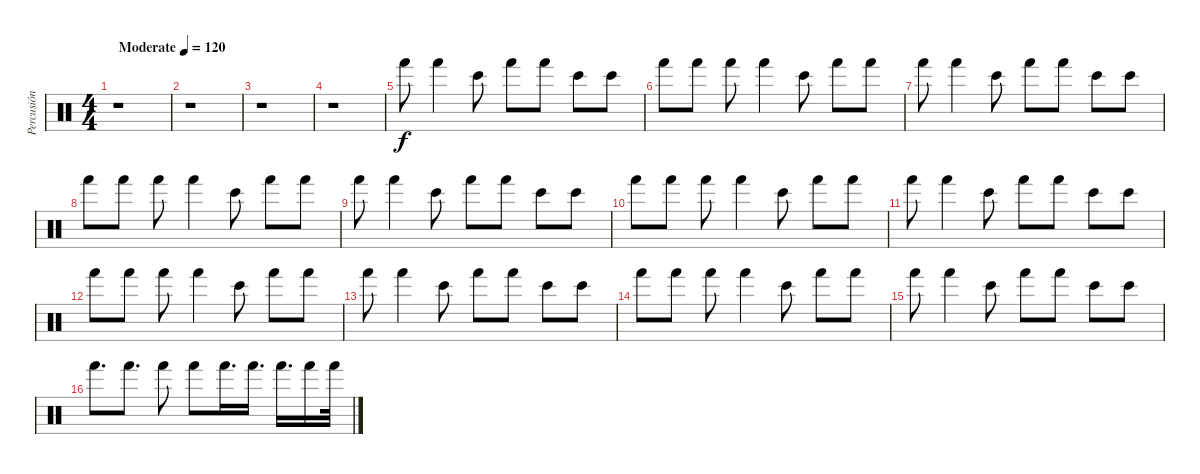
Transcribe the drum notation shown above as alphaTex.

\track ("Percusión" "Percusión") {instrument percussion}
\staff
\articulation defaults
\ts (4 4)
\tempo (120 "Moderate")
\clef neutral
\ks c
r.1{dy f} |
r.1 |
r.1 |
r.1 |
"Hand (hit)".8 "Hand (hit)".4 "Bongo High (hit)".8 "Hand (hit)".8 "Hand (hit)".8 "Bongo High (hit)".8 "Bongo High (hit)".8 |
"Hand (hit)".8 "Hand (hit)".8 "Hand (hit)".8 "Hand (hit)".4 "Bongo High (hit)".8 "Hand (hit)".8 "Hand (hit)".8 |
"Hand (hit)".8 "Hand (hit)".4 "Bongo High (hit)".8 "Hand (hit)".8 "Hand (hit)".8 "Bongo High (hit)".8 "Bongo High (hit)".8 |
"Hand (hit)".8 "Hand (hit)".8 "Hand (hit)".8 "Hand (hit)".4 "Bongo High (hit)".8 "Hand (hit)".8 "Hand (hit)".8 |
"Hand (hit)".8 "Hand (hit)".4 "Bongo High (hit)".8 "Hand (hit)".8 "Hand (hit)".8 "Bongo High (hit)".8 "Bongo High (hit)".8 |
"Hand (hit)".8 "Hand (hit)".8 "Hand (hit)".8 "Hand (hit)".4 "Bongo High (hit)".8 "Hand (hit)".8 "Hand (hit)".8 |
"Hand (hit)".8 "Hand (hit)".4 "Bongo High (hit)".8 "Hand (hit)".8 "Hand (hit)".8 "Bongo High (hit)".8 "Bongo High (hit)".8 |
"Hand (hit)".8 "Hand (hit)".8 "Hand (hit)".8 "Hand (hit)".4 "Bongo High (hit)".8 "Hand (hit)".8 "Hand (hit)".8 |
"Hand (hit)".8 "Hand (hit)".4 "Bongo High (hit)".8 "Hand (hit)".8 "Hand (hit)".8 "Bongo High (hit)".8 "Bongo High (hit)".8 |
"Hand (hit)".8 "Hand (hit)".8 "Hand (hit)".8 "Hand (hit)".4 "Bongo High (hit)".8 "Hand (hit)".8 "Hand (hit)".8 |
"Hand (hit)".8 "Hand (hit)".4 "Bongo High (hit)".8 "Hand (hit)".8 "Hand (hit)".8 "Bongo High (hit)".8 "Bongo High (hit)".8 |
"Hand (hit)".8{d} "Hand (hit)".8{d} "Hand (hit)".8 "Hand (hit)".8 "Hand (hit)".16{d} "Hand (hit)".16{d} "Hand (hit)".16{d} "Hand (hit)".16 "Hand (hit)".32
